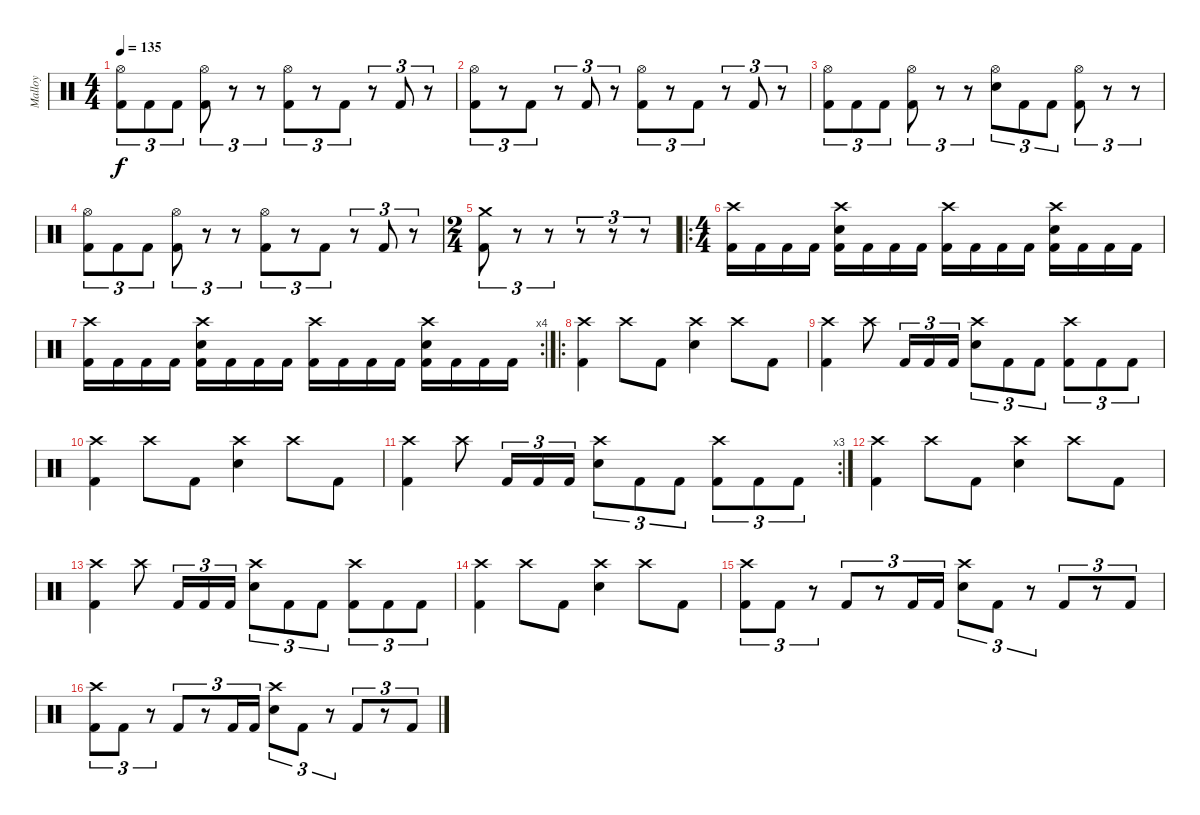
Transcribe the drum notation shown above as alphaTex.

\track ("Malloy" "Malloy") {instrument percussion}
\staff {score}
\articulation defaults
\ts (4 4)
\tempo 135
\clef neutral
\ks c
("Kick (hit) 2" "Hi-Hat (open)").8{tu (3 2) dy f} "Kick (hit) 2".8{tu (3 2)} "Kick (hit) 2".8{tu (3 2)} ("Kick (hit) 2" "Hi-Hat (open)").8{tu (3 2)} r.8{tu (3 2)} r.8{tu (3 2)} ("Kick (hit) 2" "Hi-Hat (open)").8{tu (3 2)} r.8{tu (3 2)} "Kick (hit) 2".8{tu (3 2)} r.8{tu (3 2)} "Kick (hit) 2".8{tu (3 2)} r.8{tu (3 2)} |
("Kick (hit) 2" "Hi-Hat (open)").8{tu (3 2)} r.8{tu (3 2)} "Kick (hit) 2".8{tu (3 2)} r.8{tu (3 2)} "Kick (hit) 2".8{tu (3 2)} r.8{tu (3 2)} ("Kick (hit) 2" "Hi-Hat (open)").8{tu (3 2)} r.8{tu (3 2)} "Kick (hit) 2".8{tu (3 2)} r.8{tu (3 2)} "Kick (hit) 2".8{tu (3 2)} r.8{tu (3 2)} |
("Kick (hit) 2" "Hi-Hat (open)").8{tu (3 2)} "Kick (hit) 2".8{tu (3 2)} "Kick (hit) 2".8{tu (3 2)} ("Kick (hit) 2" "Hi-Hat (open)").8{tu (3 2)} r.8{tu (3 2)} r.8{tu (3 2)} ("Electric Snare (hit)" "Hi-Hat (open)").8{tu (3 2)} "Kick (hit) 2".8{tu (3 2)} "Kick (hit) 2".8{tu (3 2)} ("Kick (hit) 2" "Hi-Hat (open)").8{tu (3 2)} r.8{tu (3 2)} r.8{tu (3 2)} |
("Kick (hit) 2" "Hi-Hat (open)").8{tu (3 2)} "Kick (hit) 2".8{tu (3 2)} "Kick (hit) 2".8{tu (3 2)} ("Kick (hit) 2" "Hi-Hat (open)").8{tu (3 2)} r.8{tu (3 2)} r.8{tu (3 2)} ("Kick (hit) 2" "Hi-Hat (open)").8{tu (3 2)} r.8{tu (3 2)} "Kick (hit) 2".8{tu (3 2)} r.8{tu (3 2)} "Kick (hit) 2".8{tu (3 2)} r.8{tu (3 2)} |
\ts (2 4)
("Kick (hit) 2" "Crash medium (hit)").8{tu (3 2)} r.8{tu (3 2)} r.8{tu (3 2)} r.8{tu (3 2)} r.8{tu (3 2)} r.8{tu (3 2)} |
\ro
\ts (4 4)
("Kick (hit) 2" "Crash high (hit)").16 "Kick (hit) 2".16 "Kick (hit) 2".16 "Kick (hit) 2".16 ("Kick (hit) 2" "Electric Snare (hit)" "Crash high (hit)").16 "Kick (hit) 2".16 "Kick (hit) 2".16 "Kick (hit) 2".16 ("Kick (hit) 2" "Crash high (hit)").16 "Kick (hit) 2".16 "Kick (hit) 2".16 "Kick (hit) 2".16 ("Kick (hit) 2" "Electric Snare (hit)" "Crash high (hit)").16 "Kick (hit) 2".16 "Kick (hit) 2".16 "Kick (hit) 2".16 |
\rc 4
("Kick (hit) 2" "Crash high (hit)").16 "Kick (hit) 2".16 "Kick (hit) 2".16 "Kick (hit) 2".16 ("Kick (hit) 2" "Electric Snare (hit)" "Crash high (hit)").16 "Kick (hit) 2".16 "Kick (hit) 2".16 "Kick (hit) 2".16 ("Kick (hit) 2" "Crash high (hit)").16 "Kick (hit) 2".16 "Kick (hit) 2".16 "Kick (hit) 2".16 ("Kick (hit) 2" "Electric Snare (hit)" "Crash high (hit)").16 "Kick (hit) 2".16 "Kick (hit) 2".16 "Kick (hit) 2".16 |
\ro
("Kick (hit) 2" "Crash high (hit)").4 "Crash high (hit)".8 "Kick (hit) 2".8 ("Electric Snare (hit)" "Crash high (hit)").4 "Crash high (hit)".8 "Kick (hit) 2".8 |
("Kick (hit) 2" "Crash high (hit)").4 "Crash high (hit)".8 "Kick (hit) 2".16{tu (3 2)} "Kick (hit) 2".16{tu (3 2)} "Kick (hit) 2".16{tu (3 2)} ("Electric Snare (hit)" "Crash high (hit)").8{tu (3 2)} "Kick (hit) 2".8{tu (3 2)} "Kick (hit) 2".8{tu (3 2)} ("Kick (hit) 2" "Crash high (hit)").8{tu (3 2)} "Kick (hit) 2".8{tu (3 2)} "Kick (hit) 2".8{tu (3 2)} |
("Kick (hit) 2" "Crash high (hit)").4 "Crash high (hit)".8 "Kick (hit) 2".8 ("Electric Snare (hit)" "Crash high (hit)").4 "Crash high (hit)".8 "Kick (hit) 2".8 |
\rc 3
("Kick (hit) 2" "Crash high (hit)").4 "Crash high (hit)".8 "Kick (hit) 2".16{tu (3 2)} "Kick (hit) 2".16{tu (3 2)} "Kick (hit) 2".16{tu (3 2)} ("Electric Snare (hit)" "Crash high (hit)").8{tu (3 2)} "Kick (hit) 2".8{tu (3 2)} "Kick (hit) 2".8{tu (3 2)} ("Kick (hit) 2" "Crash high (hit)").8{tu (3 2)} "Kick (hit) 2".8{tu (3 2)} "Kick (hit) 2".8{tu (3 2)} |
("Kick (hit) 2" "Crash high (hit)").4 "Crash high (hit)".8 "Kick (hit) 2".8 ("Electric Snare (hit)" "Crash high (hit)").4 "Crash high (hit)".8 "Kick (hit) 2".8 |
("Kick (hit) 2" "Crash high (hit)").4 "Crash high (hit)".8 "Kick (hit) 2".16{tu (3 2)} "Kick (hit) 2".16{tu (3 2)} "Kick (hit) 2".16{tu (3 2)} ("Electric Snare (hit)" "Crash high (hit)").8{tu (3 2)} "Kick (hit) 2".8{tu (3 2)} "Kick (hit) 2".8{tu (3 2)} ("Kick (hit) 2" "Crash high (hit)").8{tu (3 2)} "Kick (hit) 2".8{tu (3 2)} "Kick (hit) 2".8{tu (3 2)} |
("Kick (hit) 2" "Crash high (hit)").4 "Crash high (hit)".8 "Kick (hit) 2".8 ("Electric Snare (hit)" "Crash high (hit)").4 "Crash high (hit)".8 "Kick (hit) 2".8 |
("Kick (hit) 2" "Crash high (hit)").8{tu (3 2)} "Kick (hit) 2".8{tu (3 2)} r.8{tu (3 2)} "Kick (hit) 2".8{tu (3 2)} r.8{tu (3 2)} "Kick (hit) 2".16{tu (3 2)} "Kick (hit) 2".16{tu (3 2)} ("Electric Snare (hit)" "Crash high (hit)").8{tu (3 2)} "Kick (hit) 2".8{tu (3 2)} r.8{tu (3 2)} "Kick (hit) 2".8{tu (3 2)} r.8{tu (3 2)} "Kick (hit) 2".8{tu (3 2)} |
("Kick (hit) 2" "Crash high (hit)").8{tu (3 2)} "Kick (hit) 2".8{tu (3 2)} r.8{tu (3 2)} "Kick (hit) 2".8{tu (3 2)} r.8{tu (3 2)} "Kick (hit) 2".16{tu (3 2)} "Kick (hit) 2".16{tu (3 2)} ("Electric Snare (hit)" "Crash high (hit)").8{tu (3 2)} "Kick (hit) 2".8{tu (3 2)} r.8{tu (3 2)} "Kick (hit) 2".8{tu (3 2)} r.8{tu (3 2)} "Kick (hit) 2".8{tu (3 2)}
